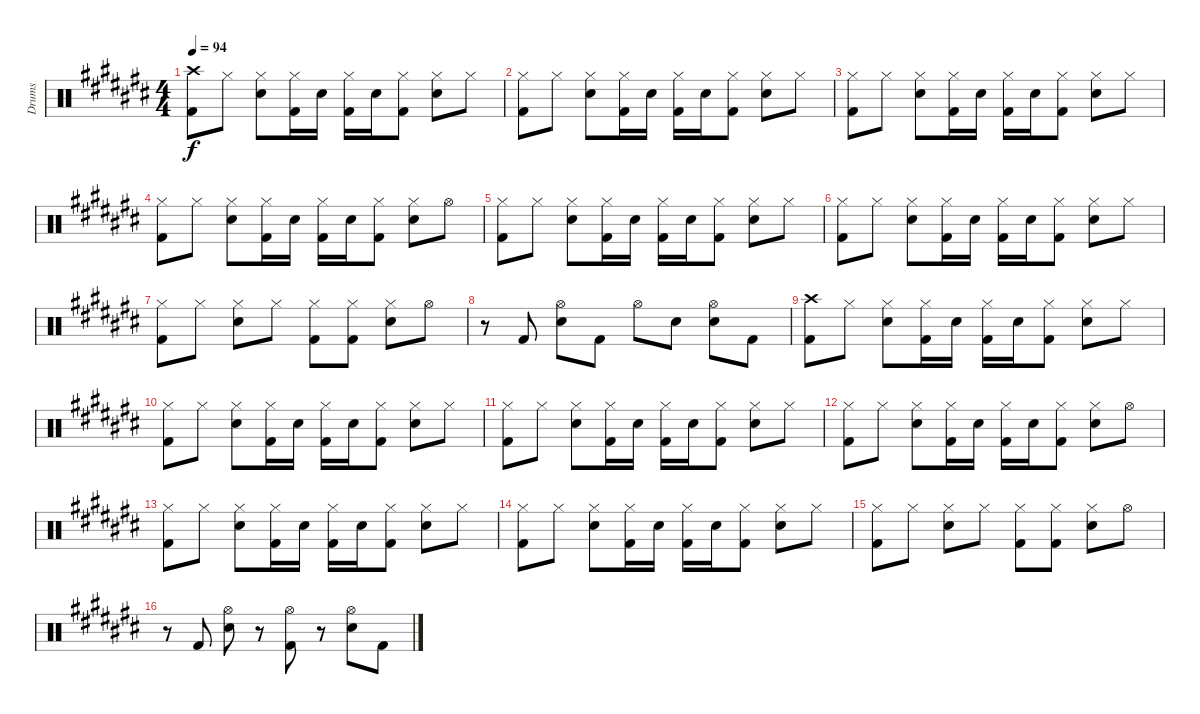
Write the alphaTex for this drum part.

\track ("Drums" "Drums") {instrument percussion}
\staff {score}
\articulation defaults
\ts (4 4)
\tempo 94
\clef neutral
\ks c#
("Crash high (hit)" "Kick (hit) 2").8{dy f} "Hi-Hat (closed)".8 ("Hi-Hat (closed)" "Snare (hit) 2").8 ("Hi-Hat (closed)" "Kick (hit) 2").16 "Snare (hit) 2".16 ("Hi-Hat (closed)" "Kick (hit) 2").16 "Snare (hit) 2".16 ("Hi-Hat (closed)" "Kick (hit) 2").8 ("Hi-Hat (closed)" "Snare (hit) 2").8 "Hi-Hat (closed)".8 |
("Hi-Hat (closed)" "Kick (hit) 2").8 "Hi-Hat (closed)".8 ("Hi-Hat (closed)" "Snare (hit) 2").8 ("Hi-Hat (closed)" "Kick (hit) 2").16 "Snare (hit) 2".16 ("Hi-Hat (closed)" "Kick (hit) 2").16 "Snare (hit) 2".16 ("Hi-Hat (closed)" "Kick (hit) 2").8 ("Hi-Hat (closed)" "Snare (hit) 2").8 "Hi-Hat (closed)".8 |
("Hi-Hat (closed)" "Kick (hit) 2").8 "Hi-Hat (closed)".8 ("Hi-Hat (closed)" "Snare (hit) 2").8 ("Hi-Hat (closed)" "Kick (hit) 2").16 "Snare (hit) 2".16 ("Hi-Hat (closed)" "Kick (hit) 2").16 "Snare (hit) 2".16 ("Hi-Hat (closed)" "Kick (hit) 2").8 ("Hi-Hat (closed)" "Snare (hit) 2").8 "Hi-Hat (closed)".8 |
("Hi-Hat (closed)" "Kick (hit) 2").8 "Hi-Hat (closed)".8 ("Hi-Hat (closed)" "Snare (hit) 2").8 ("Hi-Hat (closed)" "Kick (hit) 2").16 "Snare (hit) 2".16 ("Hi-Hat (closed)" "Kick (hit) 2").16 "Snare (hit) 2".16 ("Hi-Hat (closed)" "Kick (hit) 2").8 ("Hi-Hat (closed)" "Snare (hit) 2").8 "Hi-Hat (open)".8 |
("Hi-Hat (closed)" "Kick (hit) 2").8 "Hi-Hat (closed)".8 ("Hi-Hat (closed)" "Snare (hit) 2").8 ("Hi-Hat (closed)" "Kick (hit) 2").16 "Snare (hit) 2".16 ("Hi-Hat (closed)" "Kick (hit) 2").16 "Snare (hit) 2".16 ("Hi-Hat (closed)" "Kick (hit) 2").8 ("Hi-Hat (closed)" "Snare (hit) 2").8 "Hi-Hat (closed)".8 |
("Hi-Hat (closed)" "Kick (hit) 2").8 "Hi-Hat (closed)".8 ("Hi-Hat (closed)" "Snare (hit) 2").8 ("Hi-Hat (closed)" "Kick (hit) 2").16 "Snare (hit) 2".16 ("Hi-Hat (closed)" "Kick (hit) 2").16 "Snare (hit) 2".16 ("Hi-Hat (closed)" "Kick (hit) 2").8 ("Hi-Hat (closed)" "Snare (hit) 2").8 "Hi-Hat (closed)".8 |
("Hi-Hat (closed)" "Kick (hit) 2").8 "Hi-Hat (closed)".8 ("Hi-Hat (closed)" "Snare (hit) 2").8 "Hi-Hat (closed)".8 ("Hi-Hat (closed)" "Kick (hit) 2").8 ("Hi-Hat (closed)" "Kick (hit) 2").8 ("Hi-Hat (closed)" "Snare (hit) 2").8 "Hi-Hat (open)".8 |
r.8 "Kick (hit) 2".8 ("Hi-Hat (open)" "Snare (hit) 2").8 "Kick (hit) 2".8 "Hi-Hat (open)".8 "Snare (hit) 2".8 ("Hi-Hat (open)" "Snare (hit) 2").8 "Kick (hit) 2".8 |
("Crash high (hit)" "Kick (hit) 2").8 "Hi-Hat (closed)".8 ("Hi-Hat (closed)" "Snare (hit) 2").8 ("Hi-Hat (closed)" "Kick (hit) 2").16 "Snare (hit) 2".16 ("Hi-Hat (closed)" "Kick (hit) 2").16 "Snare (hit) 2".16 ("Hi-Hat (closed)" "Kick (hit) 2").8 ("Hi-Hat (closed)" "Snare (hit) 2").8 "Hi-Hat (closed)".8 |
("Hi-Hat (closed)" "Kick (hit) 2").8 "Hi-Hat (closed)".8 ("Hi-Hat (closed)" "Snare (hit) 2").8 ("Hi-Hat (closed)" "Kick (hit) 2").16 "Snare (hit) 2".16 ("Hi-Hat (closed)" "Kick (hit) 2").16 "Snare (hit) 2".16 ("Hi-Hat (closed)" "Kick (hit) 2").8 ("Hi-Hat (closed)" "Snare (hit) 2").8 "Hi-Hat (closed)".8 |
("Hi-Hat (closed)" "Kick (hit) 2").8 "Hi-Hat (closed)".8 ("Hi-Hat (closed)" "Snare (hit) 2").8 ("Hi-Hat (closed)" "Kick (hit) 2").16 "Snare (hit) 2".16 ("Hi-Hat (closed)" "Kick (hit) 2").16 "Snare (hit) 2".16 ("Hi-Hat (closed)" "Kick (hit) 2").8 ("Hi-Hat (closed)" "Snare (hit) 2").8 "Hi-Hat (closed)".8 |
("Hi-Hat (closed)" "Kick (hit) 2").8 "Hi-Hat (closed)".8 ("Hi-Hat (closed)" "Snare (hit) 2").8 ("Hi-Hat (closed)" "Kick (hit) 2").16 "Snare (hit) 2".16 ("Hi-Hat (closed)" "Kick (hit) 2").16 "Snare (hit) 2".16 ("Hi-Hat (closed)" "Kick (hit) 2").8 ("Hi-Hat (closed)" "Snare (hit) 2").8 "Hi-Hat (open)".8 |
("Hi-Hat (closed)" "Kick (hit) 2").8 "Hi-Hat (closed)".8 ("Hi-Hat (closed)" "Snare (hit) 2").8 ("Hi-Hat (closed)" "Kick (hit) 2").16 "Snare (hit) 2".16 ("Hi-Hat (closed)" "Kick (hit) 2").16 "Snare (hit) 2".16 ("Hi-Hat (closed)" "Kick (hit) 2").8 ("Hi-Hat (closed)" "Snare (hit) 2").8 "Hi-Hat (closed)".8 |
("Hi-Hat (closed)" "Kick (hit) 2").8 "Hi-Hat (closed)".8 ("Hi-Hat (closed)" "Snare (hit) 2").8 ("Hi-Hat (closed)" "Kick (hit) 2").16 "Snare (hit) 2".16 ("Hi-Hat (closed)" "Kick (hit) 2").16 "Snare (hit) 2".16 ("Hi-Hat (closed)" "Kick (hit) 2").8 ("Hi-Hat (closed)" "Snare (hit) 2").8 "Hi-Hat (closed)".8 |
("Hi-Hat (closed)" "Kick (hit) 2").8 "Hi-Hat (closed)".8 ("Hi-Hat (closed)" "Snare (hit) 2").8 "Hi-Hat (closed)".8 ("Hi-Hat (closed)" "Kick (hit) 2").8 ("Hi-Hat (closed)" "Kick (hit) 2").8 ("Hi-Hat (closed)" "Snare (hit) 2").8 "Hi-Hat (open)".8 |
r.8 "Kick (hit) 2".8 ("Hi-Hat (open)" "Snare (hit) 2").8 r.8 ("Hi-Hat (open)" "Kick (hit) 2").8 r.8 ("Hi-Hat (open)" "Snare (hit) 2").8 "Kick (hit) 2".8
